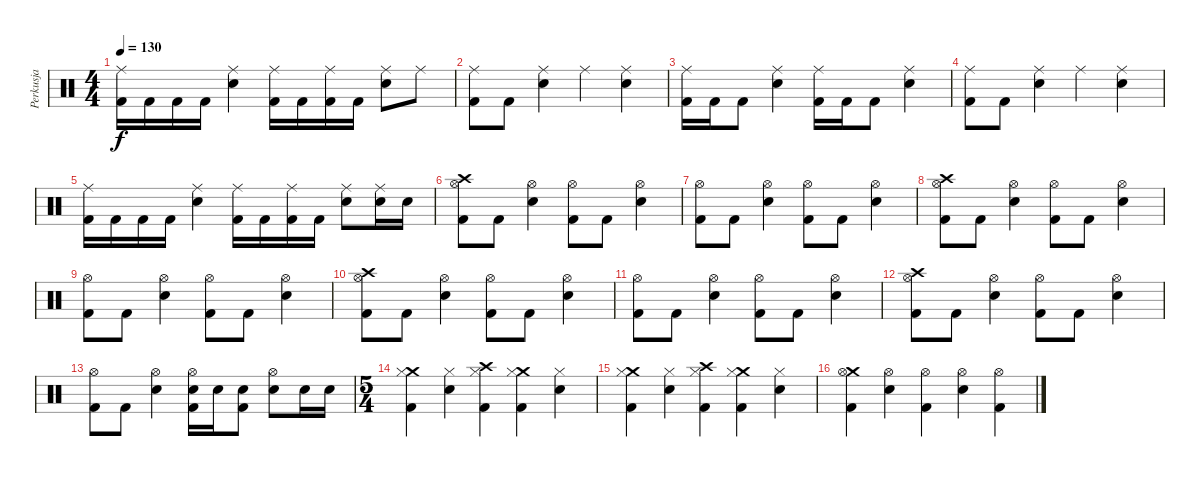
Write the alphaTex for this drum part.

\track ("Perkusja" "Perkusja") {instrument percussion}
\staff {score}
\articulation defaults
\ts (4 4)
\tempo 130
\clef neutral
\ks c
("Ride (middle)" "Kick (hit) 2").16{dy f} "Kick (hit) 2".16 "Kick (hit) 2".16 "Kick (hit) 2".16 ("Ride (middle)" "Electric Snare (hit)").4 ("Ride (middle)" "Kick (hit) 2").16 "Kick (hit) 2".16 ("Ride (middle)" "Kick (hit) 2").16 "Kick (hit) 2".16 ("Ride (middle)" "Electric Snare (hit)").8 "Ride (middle)".8 |
("Ride (middle)" "Kick (hit) 2").8 "Kick (hit) 2".8 ("Ride (middle)" "Electric Snare (hit)").4 "Ride (middle)".4 ("Ride (middle)" "Electric Snare (hit)").4 |
("Ride (middle)" "Kick (hit) 2").16 "Kick (hit) 2".16 "Kick (hit) 2".8 ("Ride (middle)" "Electric Snare (hit)").4 ("Ride (middle)" "Kick (hit) 2").16 "Kick (hit) 2".16 "Kick (hit) 2".8 ("Ride (middle)" "Electric Snare (hit)").4 |
("Ride (middle)" "Kick (hit) 2").8 "Kick (hit) 2".8 ("Ride (middle)" "Electric Snare (hit)").4 "Ride (middle)".4 ("Ride (middle)" "Electric Snare (hit)").4 |
("Ride (middle)" "Kick (hit) 2").16 "Kick (hit) 2".16 "Kick (hit) 2".16 "Kick (hit) 2".16 ("Ride (middle)" "Electric Snare (hit)").4 ("Ride (middle)" "Kick (hit) 2").16 "Kick (hit) 2".16 ("Ride (middle)" "Kick (hit) 2").16 "Kick (hit) 2".16 ("Ride (middle)" "Electric Snare (hit)").8 ("Ride (middle)" "Electric Snare (hit)").16 "Electric Snare (hit)".16 |
("Crash high (hit)" "Hi-Hat (open)" "Kick (hit) 2").8 "Kick (hit) 2".8 ("Hi-Hat (open)" "Electric Snare (hit)").4 ("Hi-Hat (open)" "Kick (hit) 2").8 "Kick (hit) 2".8 ("Hi-Hat (open)" "Electric Snare (hit)").4 |
("Hi-Hat (open)" "Kick (hit) 2").8 "Kick (hit) 2".8 ("Hi-Hat (open)" "Electric Snare (hit)").4 ("Hi-Hat (open)" "Kick (hit) 2").8 "Kick (hit) 2".8 ("Hi-Hat (open)" "Electric Snare (hit)").4 |
("Crash high (hit)" "Hi-Hat (open)" "Kick (hit) 2").8 "Kick (hit) 2".8 ("Hi-Hat (open)" "Electric Snare (hit)").4 ("Hi-Hat (open)" "Kick (hit) 2").8 "Kick (hit) 2".8 ("Hi-Hat (open)" "Electric Snare (hit)").4 |
("Hi-Hat (open)" "Kick (hit) 2").8 "Kick (hit) 2".8 ("Hi-Hat (open)" "Electric Snare (hit)").4 ("Hi-Hat (open)" "Kick (hit) 2").8 "Kick (hit) 2".8 ("Hi-Hat (open)" "Electric Snare (hit)").4 |
("Crash high (hit)" "Hi-Hat (open)" "Kick (hit) 2").8 "Kick (hit) 2".8 ("Hi-Hat (open)" "Electric Snare (hit)").4 ("Hi-Hat (open)" "Kick (hit) 2").8 "Kick (hit) 2".8 ("Hi-Hat (open)" "Electric Snare (hit)").4 |
("Hi-Hat (open)" "Kick (hit) 2").8 "Kick (hit) 2".8 ("Hi-Hat (open)" "Electric Snare (hit)").4 ("Hi-Hat (open)" "Kick (hit) 2").8 "Kick (hit) 2".8 ("Hi-Hat (open)" "Electric Snare (hit)").4 |
("Crash high (hit)" "Hi-Hat (open)" "Kick (hit) 2").8 "Kick (hit) 2".8 ("Hi-Hat (open)" "Electric Snare (hit)").4 ("Hi-Hat (open)" "Kick (hit) 2").8 "Kick (hit) 2".8 ("Hi-Hat (open)" "Electric Snare (hit)").4 |
("Hi-Hat (open)" "Kick (hit) 2").8 "Kick (hit) 2".8 ("Hi-Hat (open)" "Electric Snare (hit)").4 ("Hi-Hat (open)" "Electric Snare (hit)" "Kick (hit) 2").16 "Electric Snare (hit)".16 ("Electric Snare (hit)" "Kick (hit) 2").8 ("Hi-Hat (open)" "Electric Snare (hit)").8 "Electric Snare (hit)".16 "Electric Snare (hit)".16 |
\ts (5 4)
("Crash medium (hit)" "Hi-Hat (closed)" "Kick (hit) 2").4 ("Hi-Hat (closed)" "Electric Snare (hit)").4 ("Crash high (hit)" "Hi-Hat (closed)" "Kick (hit) 2").4 ("Crash medium (hit)" "Hi-Hat (closed)" "Kick (hit) 2").4 ("Hi-Hat (closed)" "Electric Snare (hit)").4 |
("Crash medium (hit)" "Hi-Hat (closed)" "Kick (hit) 2").4 ("Hi-Hat (closed)" "Electric Snare (hit)").4 ("Crash high (hit)" "Hi-Hat (closed)" "Kick (hit) 2").4 ("Crash medium (hit)" "Hi-Hat (closed)" "Kick (hit) 2").4 ("Hi-Hat (closed)" "Electric Snare (hit)").4 |
("Crash medium (hit)" "Hi-Hat (open)" "Kick (hit) 2").4 ("Hi-Hat (open)" "Electric Snare (hit)").4 ("Hi-Hat (open)" "Kick (hit) 2").4 ("Hi-Hat (open)" "Electric Snare (hit)").4 ("Hi-Hat (open)" "Kick (hit) 2").4
